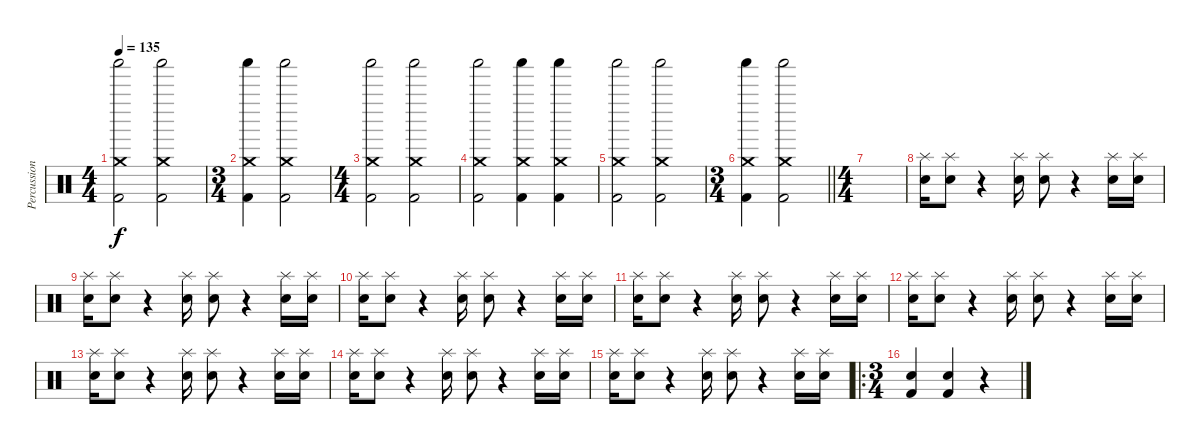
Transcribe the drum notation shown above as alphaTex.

\track ("Percussioni" "Percussion") {instrument percussion}
\staff {score}
\articulation defaults
\ts (4 4)
\tempo 135
\clef neutral
\ks c
("Kick (hit) 2" "Shaker (hit)" "Crash medium (hit)").2{dy f} ("Kick (hit) 2" "Shaker (hit)" "Crash medium (hit)").2 |
\ts (3 4)
("Kick (hit) 2" "Shaker (hit)" "Crash medium (hit)").4 ("Kick (hit) 2" "Shaker (hit)" "Crash medium (hit)").2 |
\ts (4 4)
("Kick (hit) 2" "Shaker (hit)" "Crash medium (hit)").2 ("Kick (hit) 2" "Shaker (hit)" "Crash medium (hit)").2 |
("Kick (hit) 2" "Shaker (hit)" "Crash medium (hit)").2 ("Kick (hit) 2" "Shaker (hit)" "Crash medium (hit)").4 ("Kick (hit) 2" "Shaker (hit)" "Crash medium (hit)").4 |
("Kick (hit) 2" "Shaker (hit)" "Crash medium (hit)").2 ("Kick (hit) 2" "Shaker (hit)" "Crash medium (hit)").2 |
\ts (3 4)
\barLineRight lightlight
("Kick (hit) 2" "Shaker (hit)" "Crash medium (hit)").4 ("Kick (hit) 2" "Shaker (hit)" "Crash medium (hit)").2 |
\ts (4 4)
|
("Splash (hit)" "Electric Snare (hit)").16 ("Splash (hit)" "Electric Snare (hit)").8 r.4 ("Splash (hit)" "Electric Snare (hit)").16 ("Splash (hit)" "Electric Snare (hit)").8 r.4 ("Splash (hit)" "Electric Snare (hit)").16 ("Splash (hit)" "Electric Snare (hit)").16 |
("Splash (hit)" "Electric Snare (hit)").16 ("Splash (hit)" "Electric Snare (hit)").8 r.4 ("Splash (hit)" "Electric Snare (hit)").16 ("Splash (hit)" "Electric Snare (hit)").8 r.4 ("Splash (hit)" "Electric Snare (hit)").16 ("Splash (hit)" "Electric Snare (hit)").16 |
("Splash (hit)" "Electric Snare (hit)").16 ("Splash (hit)" "Electric Snare (hit)").8 r.4 ("Splash (hit)" "Electric Snare (hit)").16 ("Splash (hit)" "Electric Snare (hit)").8 r.4 ("Splash (hit)" "Electric Snare (hit)").16 ("Splash (hit)" "Electric Snare (hit)").16 |
("Splash (hit)" "Electric Snare (hit)").16 ("Splash (hit)" "Electric Snare (hit)").8 r.4 ("Splash (hit)" "Electric Snare (hit)").16 ("Splash (hit)" "Electric Snare (hit)").8 r.4 ("Splash (hit)" "Electric Snare (hit)").16 ("Splash (hit)" "Electric Snare (hit)").16 |
("Splash (hit)" "Electric Snare (hit)").16 ("Splash (hit)" "Electric Snare (hit)").8 r.4 ("Splash (hit)" "Electric Snare (hit)").16 ("Splash (hit)" "Electric Snare (hit)").8 r.4 ("Splash (hit)" "Electric Snare (hit)").16 ("Splash (hit)" "Electric Snare (hit)").16 |
("Splash (hit)" "Electric Snare (hit)").16 ("Splash (hit)" "Electric Snare (hit)").8 r.4 ("Splash (hit)" "Electric Snare (hit)").16 ("Splash (hit)" "Electric Snare (hit)").8 r.4 ("Splash (hit)" "Electric Snare (hit)").16 ("Splash (hit)" "Electric Snare (hit)").16 |
("Splash (hit)" "Electric Snare (hit)").16 ("Splash (hit)" "Electric Snare (hit)").8 r.4 ("Splash (hit)" "Electric Snare (hit)").16 ("Splash (hit)" "Electric Snare (hit)").8 r.4 ("Splash (hit)" "Electric Snare (hit)").16 ("Splash (hit)" "Electric Snare (hit)").16 |
("Splash (hit)" "Electric Snare (hit)").16 ("Splash (hit)" "Electric Snare (hit)").8 r.4 ("Splash (hit)" "Electric Snare (hit)").16 ("Splash (hit)" "Electric Snare (hit)").8 r.4 ("Splash (hit)" "Electric Snare (hit)").16 ("Splash (hit)" "Electric Snare (hit)").16 |
\ro
\ts (3 4)
("Kick (hit) 2" "Snare (hit) 2").4 ("Kick (hit) 2" "Snare (hit) 2").4 r.4
